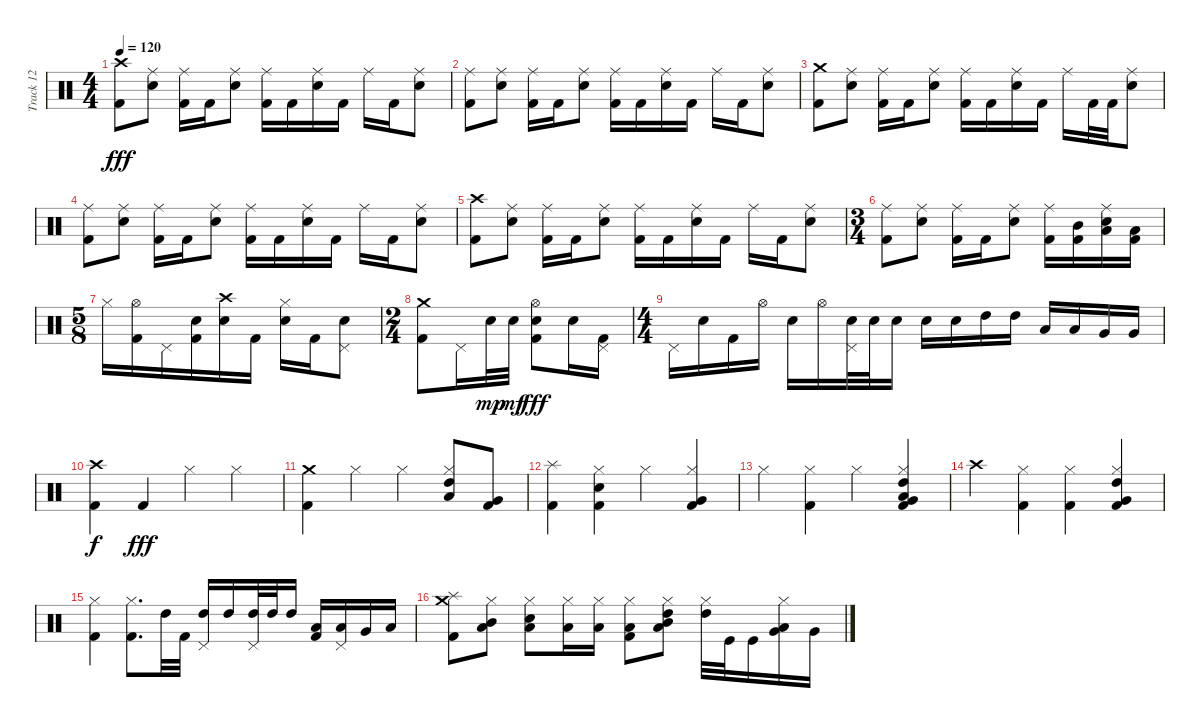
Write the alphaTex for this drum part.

\track ("Track 12" "Track 12") {instrument percussion}
\staff {score}
\articulation defaults
\ts (4 4)
\tempo 120
\clef neutral
\ks c
("Crash high (hit)" "Kick (hit) 2").8{dy fff} ("Ride (middle)" "Snare (hit) 2").8 ("Ride (middle)" "Kick (hit) 2").16 "Kick (hit) 2".16 ("Ride (middle)" "Snare (hit) 2").8 ("Ride (middle)" "Kick (hit) 2").16 "Kick (hit) 2".16 ("Ride (middle)" "Snare (hit) 2").16 "Kick (hit) 2".16 "Ride (middle)".16 "Kick (hit) 2".16 ("Ride (middle)" "Snare (hit) 2").8 |
("Ride (middle)" "Kick (hit) 2").8 ("Ride (middle)" "Snare (hit) 2").8 ("Ride (middle)" "Kick (hit) 2").16 "Kick (hit) 2".16 ("Ride (middle)" "Snare (hit) 2").8 ("Ride (middle)" "Kick (hit) 2").16 "Kick (hit) 2".16 ("Ride (middle)" "Snare (hit) 2").16 "Kick (hit) 2".16 "Ride (middle)".16 "Kick (hit) 2".16 ("Ride (middle)" "Snare (hit) 2").8 |
("Crash medium (hit)" "Kick (hit) 2").8 ("Ride (middle)" "Snare (hit) 2").8 ("Ride (middle)" "Kick (hit) 2").16 "Kick (hit) 2".16 ("Ride (middle)" "Snare (hit) 2").8 ("Ride (middle)" "Kick (hit) 2").16 "Kick (hit) 2".16 ("Ride (middle)" "Snare (hit) 2").16 "Kick (hit) 2".16 "Ride (middle)".16 "Kick (hit) 2".32 "Kick (hit) 2".32 ("Ride (middle)" "Snare (hit) 2").8 |
("Ride (middle)" "Kick (hit) 2").8 ("Ride (middle)" "Snare (hit) 2").8 ("Ride (middle)" "Kick (hit) 2").16 "Kick (hit) 2".16 ("Ride (middle)" "Snare (hit) 2").8 ("Ride (middle)" "Kick (hit) 2").16 "Kick (hit) 2".16 ("Ride (middle)" "Snare (hit) 2").16 "Kick (hit) 2".16 "Ride (middle)".16 "Kick (hit) 2".16 ("Ride (middle)" "Snare (hit) 2").8 |
("Crash high (hit)" "Kick (hit) 2").8 ("Ride (middle)" "Snare (hit) 2").8 ("Ride (middle)" "Kick (hit) 2").16 "Kick (hit) 2".16 ("Ride (middle)" "Snare (hit) 2").8 ("Ride (middle)" "Kick (hit) 2").16 "Kick (hit) 2".16 ("Ride (middle)" "Snare (hit) 2").16 "Kick (hit) 2".16 "Ride (middle)".16 "Kick (hit) 2".16 ("Ride (middle)" "Snare (hit) 2").8 |
\ts (3 4)
("Ride (middle)" "Kick (hit) 2").8 ("Ride (middle)" "Snare (hit) 2").8 ("Ride (middle)" "Kick (hit) 2").16 "Kick (hit) 2".16 ("Ride (middle)" "Snare (hit) 2").8 ("Ride (middle)" "Kick (hit) 2").16 ("Mid Tom (hit)" "Kick (hit) 2").16 ("Ride (middle)" "Low Tom (hit)" "Snare (hit) 2").16 ("Low Floor Tom (hit)" "Kick (hit) 2").16 |
\ts (5 8)
"Hi-Hat (closed)".16 ("Hi-Hat (open)" "Kick (hit) 2").16 "Pedal Hi-Hat (hit)".16 ("Snare (hit) 2" "Kick (hit) 2").16 ("Crash high (hit)" "Electric Snare (hit)").16 "Kick (hit) 2".16 ("Hi-Hat (closed)" "Snare (hit) 2").16 "Kick (hit) 2".16 ("Pedal Hi-Hat (hit)" "Snare (hit) 2").8 |
\ts (2 4)
("Crash medium (hit)" "Kick (hit) 2").8 "Pedal Hi-Hat (hit)".16 "Snare (hit) 2".32{dy mp} "Snare (hit) 2".32{dy mf} ("Hi-Hat (open)" "Snare (hit) 2" "Kick (hit) 2").8{dy fff} "Electric Snare (hit)".16 ("Pedal Hi-Hat (hit)" "Kick (hit) 2").16 |
\ts (4 4)
"Pedal Hi-Hat (hit)".16 "Snare (hit) 2".16 "Kick (hit) 2".16 "Hi-Hat (open)".16 "Snare (hit) 2".16 "Hi-Hat (open)".16 ("Pedal Hi-Hat (hit)" "Snare (hit) 2").32 "Snare (hit) 2".32 "Snare (hit) 2".16 "Snare (hit) 2".16 "Electric Snare (hit)".16 "High Tom (hit)".16 "High Tom (hit)".16 "Low Tom (hit)".16 "Low Tom (hit)".16 "Very Low Tom (hit)".16 "Very Low Tom (hit)".16 |
("Crash high (hit)" "Kick (hit) 2").4{dy f} "Kick (hit) 2".4{dy fff} "Hi-Hat (closed)".4 "Hi-Hat (closed)".4 |
("Crash medium (hit)" "Kick (hit) 2").4 "Hi-Hat (closed)".4 "Hi-Hat (closed)".4 ("Hi-Hat (closed)" "High Tom (hit)" "Low Tom (hit)").8 ("Very Low Tom (hit)" "Kick (hit) 2").8 |
("Splash (hit)" "Kick (hit) 2").4 ("Hi-Hat (closed)" "Snare (hit) 2" "Kick (hit) 2").4 "Hi-Hat (closed)".4 ("Hi-Hat (closed)" "Very Low Tom (hit)" "Kick (hit) 2").4 |
"Hi-Hat (closed)".4 ("Hi-Hat (closed)" "Kick (hit) 2").4 "Hi-Hat (closed)".4 ("Hi-Hat (closed)" "High Tom (hit)" "Very Low Tom (hit)" "Low Floor Tom (hit)" "Kick (hit) 2").4 |
"Crash high (hit)".4 ("Hi-Hat (closed)" "Kick (hit) 2").4 ("Hi-Hat (closed)" "Kick (hit) 2").4 ("Hi-Hat (closed)" "High Tom (hit)" "Very Low Tom (hit)" "Kick (hit) 2").4 |
("Hi-Hat (closed)" "Kick (hit) 2").4 ("Hi-Hat (closed)" "Kick (hit) 2").8{d} "High Tom (hit)".32 "Kick (hit) 2".32 ("Pedal Hi-Hat (hit)" "High Tom (hit)").16 "High Tom (hit)".16 ("Pedal Hi-Hat (hit)" "High Tom (hit)").32 "High Tom (hit)".32 "High Tom (hit)".16 ("Low Tom (hit)" "Kick (hit) 2").16 ("Pedal Hi-Hat (hit)" "Low Tom (hit)").16 "Very Low Tom (hit)".16 "Low Floor Tom (hit)".16 |
("Crash medium (hit)" "Splash (hit)" "Kick (hit) 2").8 ("Hi-Hat (closed)" "Mid Tom (hit)" "Low Floor Tom (hit)").8 ("Hi-Hat (closed)" "Low Floor Tom (hit)" "Snare (hit) 2").8 ("Hi-Hat (closed)" "Low Tom (hit)").16 ("Hi-Hat (closed)" "Low Tom (hit)").16 ("Hi-Hat (closed)" "Low Floor Tom (hit)" "Kick (hit) 2").8 ("Hi-Hat (closed)" "Mid Tom (hit)" "High Tom (hit)" "Low Floor Tom (hit)").8 ("Hi-Hat (closed)" "High Tom (hit)").32 "Kick (hit)".32 "Kick (hit)".16 ("Hi-Hat (closed)" "Very Low Tom (hit)" "Low Floor Tom (hit)").16 "Very Low Tom (hit)".16
